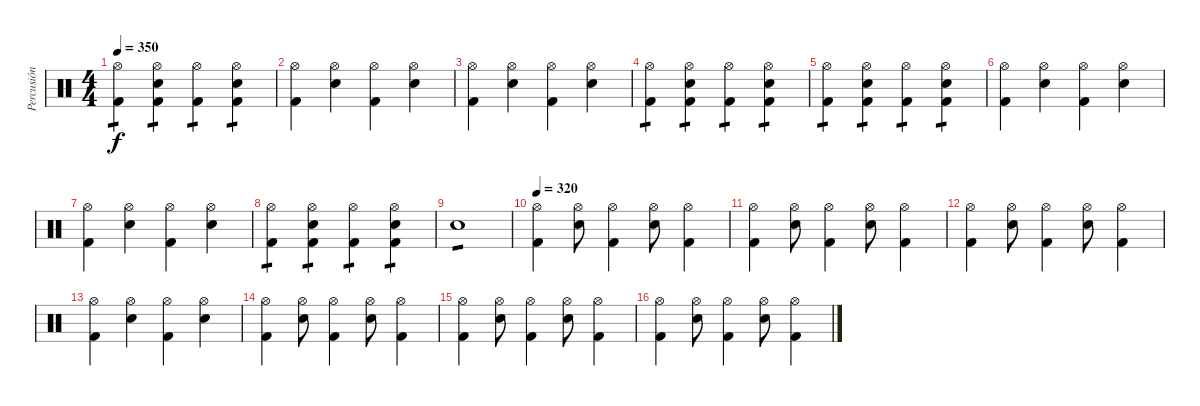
\track ("Percusión" "Percusión") {instrument percussion}
\staff {score}
\articulation defaults
\ts (4 4)
\tempo 350
\clef neutral
\ks c
("Hi-Hat (open)" "Kick (hit) 2").4{tp 1 dy f} ("Hi-Hat (open)" "Electric Snare (hit)" "Kick (hit) 2").4{tp 1} ("Hi-Hat (open)" "Kick (hit) 2").4{tp 1} ("Hi-Hat (open)" "Electric Snare (hit)" "Kick (hit) 2").4{tp 1} |
("Hi-Hat (open)" "Kick (hit) 2").4 ("Hi-Hat (open)" "Electric Snare (hit)").4 ("Hi-Hat (open)" "Kick (hit) 2").4 ("Hi-Hat (open)" "Electric Snare (hit)").4 |
("Hi-Hat (open)" "Kick (hit) 2").4 ("Hi-Hat (open)" "Electric Snare (hit)").4 ("Hi-Hat (open)" "Kick (hit) 2").4 ("Hi-Hat (open)" "Electric Snare (hit)").4 |
("Hi-Hat (open)" "Kick (hit) 2").4{tp 1} ("Hi-Hat (open)" "Electric Snare (hit)" "Kick (hit) 2").4{tp 1} ("Hi-Hat (open)" "Kick (hit) 2").4{tp 1} ("Hi-Hat (open)" "Electric Snare (hit)" "Kick (hit) 2").4{tp 1} |
("Hi-Hat (open)" "Kick (hit) 2").4{tp 1} ("Hi-Hat (open)" "Electric Snare (hit)" "Kick (hit) 2").4{tp 1} ("Hi-Hat (open)" "Kick (hit) 2").4{tp 1} ("Hi-Hat (open)" "Electric Snare (hit)" "Kick (hit) 2").4{tp 1} |
("Hi-Hat (open)" "Kick (hit) 2").4 ("Hi-Hat (open)" "Electric Snare (hit)").4 ("Hi-Hat (open)" "Kick (hit) 2").4 ("Hi-Hat (open)" "Electric Snare (hit)").4 |
("Hi-Hat (open)" "Kick (hit) 2").4 ("Hi-Hat (open)" "Electric Snare (hit)").4 ("Hi-Hat (open)" "Kick (hit) 2").4 ("Hi-Hat (open)" "Electric Snare (hit)").4 |
("Hi-Hat (open)" "Kick (hit) 2").4{tp 1} ("Hi-Hat (open)" "Electric Snare (hit)" "Kick (hit) 2").4{tp 1} ("Hi-Hat (open)" "Kick (hit) 2").4{tp 1} ("Hi-Hat (open)" "Electric Snare (hit)" "Kick (hit) 2").4{tp 1} |
"Electric Snare (hit)".1{tp 1} |
\tempo 320
("Hi-Hat (open)" "Kick (hit) 2").4 ("Hi-Hat (open)" "Electric Snare (hit)").8 ("Hi-Hat (open)" "Kick (hit) 2").4 ("Hi-Hat (open)" "Electric Snare (hit)").8 ("Hi-Hat (open)" "Kick (hit) 2").4 |
("Hi-Hat (open)" "Kick (hit) 2").4 ("Hi-Hat (open)" "Electric Snare (hit)").8 ("Hi-Hat (open)" "Kick (hit) 2").4 ("Hi-Hat (open)" "Electric Snare (hit)").8 ("Hi-Hat (open)" "Kick (hit) 2").4 |
("Hi-Hat (open)" "Kick (hit) 2").4 ("Hi-Hat (open)" "Electric Snare (hit)").8 ("Hi-Hat (open)" "Kick (hit) 2").4 ("Hi-Hat (open)" "Electric Snare (hit)").8 ("Hi-Hat (open)" "Kick (hit) 2").4 |
("Hi-Hat (open)" "Kick (hit) 2").4 ("Hi-Hat (open)" "Electric Snare (hit)").4 ("Hi-Hat (open)" "Kick (hit) 2").4 ("Hi-Hat (open)" "Electric Snare (hit)").4 |
("Hi-Hat (open)" "Kick (hit) 2").4 ("Hi-Hat (open)" "Electric Snare (hit)").8 ("Hi-Hat (open)" "Kick (hit) 2").4 ("Hi-Hat (open)" "Electric Snare (hit)").8 ("Hi-Hat (open)" "Kick (hit) 2").4 |
("Hi-Hat (open)" "Kick (hit) 2").4 ("Hi-Hat (open)" "Electric Snare (hit)").8 ("Hi-Hat (open)" "Kick (hit) 2").4 ("Hi-Hat (open)" "Electric Snare (hit)").8 ("Hi-Hat (open)" "Kick (hit) 2").4 |
("Hi-Hat (open)" "Kick (hit) 2").4 ("Hi-Hat (open)" "Electric Snare (hit)").8 ("Hi-Hat (open)" "Kick (hit) 2").4 ("Hi-Hat (open)" "Electric Snare (hit)").8 ("Hi-Hat (open)" "Kick (hit) 2").4
